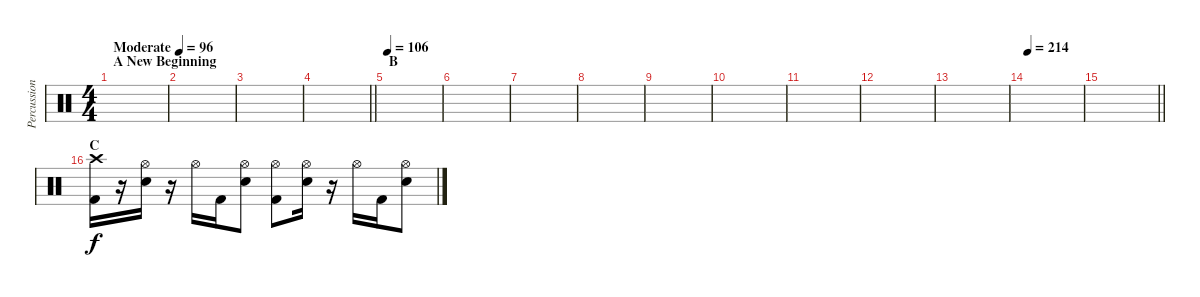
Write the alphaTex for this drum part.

\track ("Percussion" "Percussion") {instrument percussion}
\staff {score}
\articulation defaults
\ts (4 4)
\section ("" "A New Beginning")
\tempo (96 "Moderate")
\clef neutral
\ks c
|
|
|
\barLineRight lightlight
|
\section ("" "B")
\tempo 106
|
|
|
|
|
|
|
|
|
\tempo 214
|
\barLineRight lightlight
|
\section ("" "C")
("Crash high (hit)" "Kick (hit) 2").16 r.16 ("Electric Snare (hit)" "Hi-Hat (open)").16 r.16 "Hi-Hat (open)".16 "Kick (hit) 2".16 ("Electric Snare (hit)" "Hi-Hat (open)").8 ("Kick (hit) 2" "Hi-Hat (open)").8 ("Electric Snare (hit)" "Hi-Hat (open)").16 r.16 "Hi-Hat (open)".16 "Kick (hit) 2".16 ("Electric Snare (hit)" "Hi-Hat (open)").8
